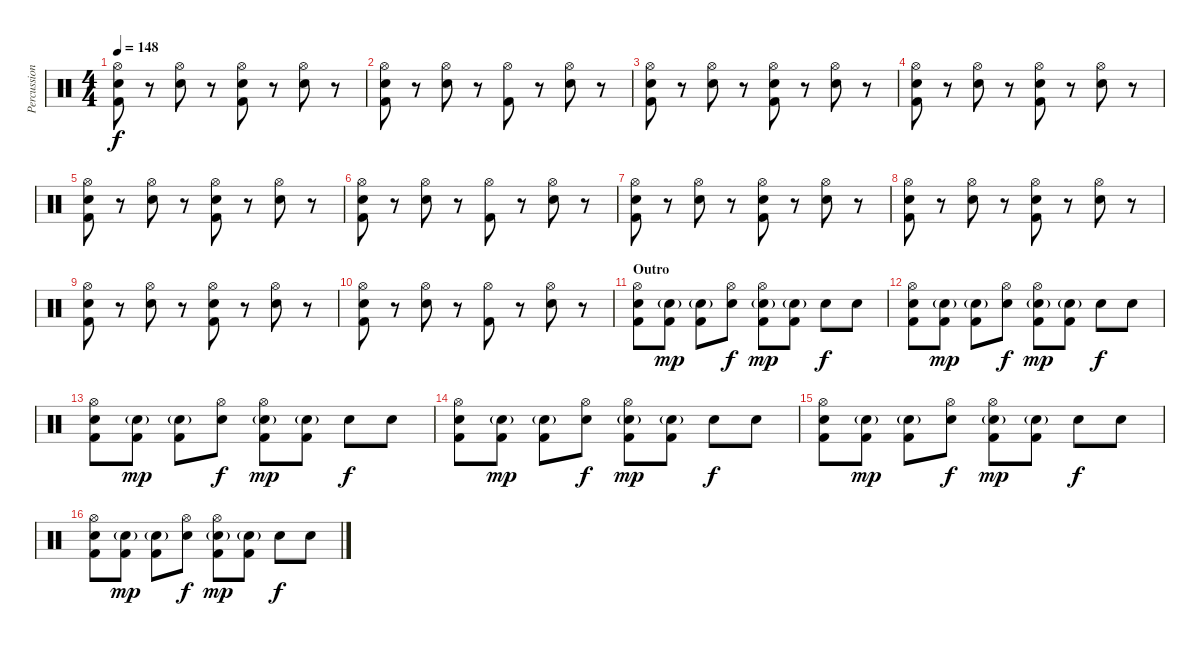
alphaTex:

\track ("Percussion" "Percussion") {instrument percussion}
\staff {score}
\articulation defaults
\ts (4 4)
\tempo 148
\clef neutral
\ks c
("Hi-Hat (open)" "Snare (hit) 2" "Kick (hit) 2").8{dy f} r.8 ("Hi-Hat (open)" "Snare (hit) 2").8 r.8 ("Hi-Hat (open)" "Snare (hit) 2" "Kick (hit) 2").8 r.8 ("Hi-Hat (open)" "Snare (hit) 2").8 r.8 |
("Hi-Hat (open)" "Snare (hit) 2" "Kick (hit) 2").8 r.8 ("Hi-Hat (open)" "Snare (hit) 2").8 r.8 ("Hi-Hat (open)" "Kick (hit) 2").8 r.8 ("Hi-Hat (open)" "Snare (hit) 2").8 r.8 |
("Hi-Hat (open)" "Snare (hit) 2" "Kick (hit) 2").8 r.8 ("Hi-Hat (open)" "Snare (hit) 2").8 r.8 ("Hi-Hat (open)" "Snare (hit) 2" "Kick (hit) 2").8 r.8 ("Hi-Hat (open)" "Snare (hit) 2").8 r.8 |
("Hi-Hat (open)" "Snare (hit) 2" "Kick (hit) 2").8 r.8 ("Hi-Hat (open)" "Snare (hit) 2").8 r.8 ("Hi-Hat (open)" "Snare (hit) 2" "Kick (hit) 2").8 r.8 ("Hi-Hat (open)" "Snare (hit) 2").8 r.8 |
("Hi-Hat (open)" "Snare (hit) 2" "Kick (hit) 2").8 r.8 ("Hi-Hat (open)" "Snare (hit) 2").8 r.8 ("Hi-Hat (open)" "Snare (hit) 2" "Kick (hit) 2").8 r.8 ("Hi-Hat (open)" "Snare (hit) 2").8 r.8 |
("Hi-Hat (open)" "Snare (hit) 2" "Kick (hit) 2").8 r.8 ("Hi-Hat (open)" "Snare (hit) 2").8 r.8 ("Hi-Hat (open)" "Kick (hit) 2").8 r.8 ("Hi-Hat (open)" "Snare (hit) 2").8 r.8 |
("Hi-Hat (open)" "Snare (hit) 2" "Kick (hit) 2").8 r.8 ("Hi-Hat (open)" "Snare (hit) 2").8 r.8 ("Hi-Hat (open)" "Snare (hit) 2" "Kick (hit) 2").8 r.8 ("Hi-Hat (open)" "Snare (hit) 2").8 r.8 |
("Hi-Hat (open)" "Snare (hit) 2" "Kick (hit) 2").8 r.8 ("Hi-Hat (open)" "Snare (hit) 2").8 r.8 ("Hi-Hat (open)" "Snare (hit) 2" "Kick (hit) 2").8 r.8 ("Hi-Hat (open)" "Snare (hit) 2").8 r.8 |
("Hi-Hat (open)" "Snare (hit) 2" "Kick (hit) 2").8 r.8 ("Hi-Hat (open)" "Snare (hit) 2").8 r.8 ("Hi-Hat (open)" "Snare (hit) 2" "Kick (hit) 2").8 r.8 ("Hi-Hat (open)" "Snare (hit) 2").8 r.8 |
("Hi-Hat (open)" "Snare (hit) 2" "Kick (hit) 2").8 r.8 ("Hi-Hat (open)" "Snare (hit) 2").8 r.8 ("Hi-Hat (open)" "Kick (hit) 2").8 r.8 ("Hi-Hat (open)" "Snare (hit) 2").8 r.8 |
\section ("" "Outro")
("Hi-Hat (open)" "Snare (hit) 2" "Kick (hit) 2").8 ("Snare (hit) 2"{g} "Kick (hit) 2").8{dy mp} ("Snare (hit) 2"{g} "Kick (hit) 2").8 ("Hi-Hat (open)" "Snare (hit) 2").8{dy f} ("Hi-Hat (open)" "Snare (hit) 2"{g} "Kick (hit) 2").8{dy mp} ("Snare (hit) 2"{g} "Kick (hit) 2").8 "Snare (hit) 2".8{dy f} "Snare (hit) 2".8 |
("Hi-Hat (open)" "Snare (hit) 2" "Kick (hit) 2").8 ("Snare (hit) 2"{g} "Kick (hit) 2").8{dy mp} ("Snare (hit) 2"{g} "Kick (hit) 2").8 ("Hi-Hat (open)" "Snare (hit) 2").8{dy f} ("Hi-Hat (open)" "Snare (hit) 2"{g} "Kick (hit) 2").8{dy mp} ("Snare (hit) 2"{g} "Kick (hit) 2").8 "Snare (hit) 2".8{dy f} "Snare (hit) 2".8 |
("Hi-Hat (open)" "Snare (hit) 2" "Kick (hit) 2").8 ("Snare (hit) 2"{g} "Kick (hit) 2").8{dy mp} ("Snare (hit) 2"{g} "Kick (hit) 2").8 ("Hi-Hat (open)" "Snare (hit) 2").8{dy f} ("Hi-Hat (open)" "Snare (hit) 2"{g} "Kick (hit) 2").8{dy mp} ("Snare (hit) 2"{g} "Kick (hit) 2").8 "Snare (hit) 2".8{dy f} "Snare (hit) 2".8 |
("Hi-Hat (open)" "Snare (hit) 2" "Kick (hit) 2").8 ("Snare (hit) 2"{g} "Kick (hit) 2").8{dy mp} ("Snare (hit) 2"{g} "Kick (hit) 2").8 ("Hi-Hat (open)" "Snare (hit) 2").8{dy f} ("Hi-Hat (open)" "Snare (hit) 2"{g} "Kick (hit) 2").8{dy mp} ("Snare (hit) 2"{g} "Kick (hit) 2").8 "Snare (hit) 2".8{dy f} "Snare (hit) 2".8 |
("Hi-Hat (open)" "Snare (hit) 2" "Kick (hit) 2").8 ("Snare (hit) 2"{g} "Kick (hit) 2").8{dy mp} ("Snare (hit) 2"{g} "Kick (hit) 2").8 ("Hi-Hat (open)" "Snare (hit) 2").8{dy f} ("Hi-Hat (open)" "Snare (hit) 2"{g} "Kick (hit) 2").8{dy mp} ("Snare (hit) 2"{g} "Kick (hit) 2").8 "Snare (hit) 2".8{dy f} "Snare (hit) 2".8 |
("Hi-Hat (open)" "Snare (hit) 2" "Kick (hit) 2").8 ("Snare (hit) 2"{g} "Kick (hit) 2").8{dy mp} ("Snare (hit) 2"{g} "Kick (hit) 2").8 ("Hi-Hat (open)" "Snare (hit) 2").8{dy f} ("Hi-Hat (open)" "Snare (hit) 2"{g} "Kick (hit) 2").8{dy mp} ("Snare (hit) 2"{g} "Kick (hit) 2").8 "Snare (hit) 2".8{dy f} "Snare (hit) 2".8
